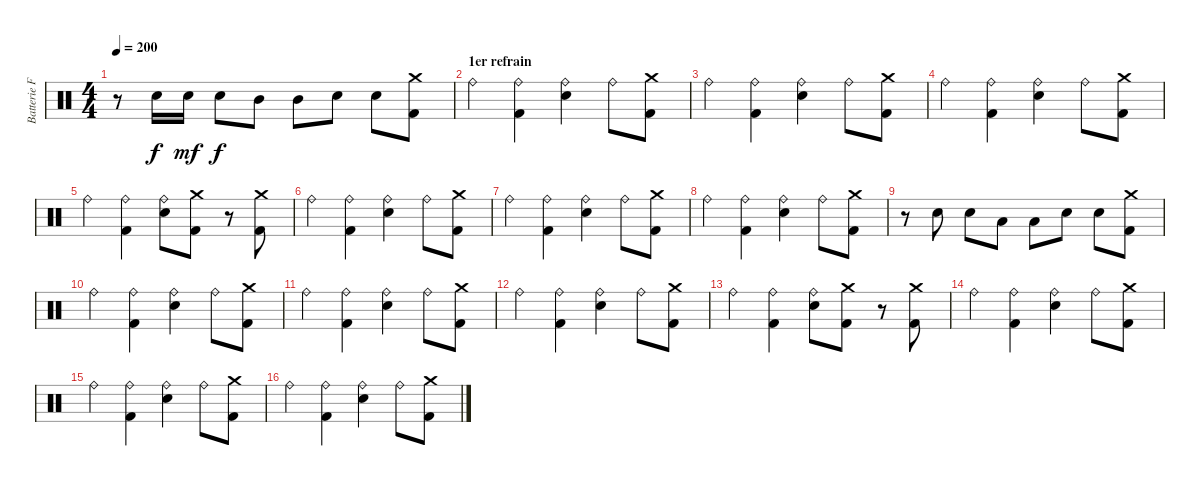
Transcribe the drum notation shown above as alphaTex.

\track ("Batterie Franck" "Batterie F") {instrument percussion}
\staff {score}
\articulation defaults
\ts (4 4)
\tempo 200
\clef neutral
\ks c
r.8{dy f} "Snare (hit) 2".16 "Snare (hit) 2".16{dy mf} "Snare (hit) 2".8{dy f} "Mid Tom (hit)".8 "Mid Tom (hit)".8 "Snare (hit) 2".8 "Snare (hit) 2".8 ("Crash medium (hit)" "Kick (hit) 2").8 |
\section ("" "1er refrain")
"Ride (bell)".4 ("Ride (bell)" "Kick (hit) 2").4 ("Ride (bell)" "Snare (hit) 2").4 "Ride (bell)".8 ("Crash medium (hit)" "Kick (hit) 2").8 |
"Ride (bell)".4 ("Ride (bell)" "Kick (hit) 2").4 ("Ride (bell)" "Snare (hit) 2").4 "Ride (bell)".8 ("Crash medium (hit)" "Kick (hit) 2").8 |
"Ride (bell)".4 ("Ride (bell)" "Kick (hit) 2").4 ("Ride (bell)" "Snare (hit) 2").4 "Ride (bell)".8 ("Crash medium (hit)" "Kick (hit) 2").8 |
"Ride (bell)".4 ("Ride (bell)" "Kick (hit) 2").4 ("Ride (bell)" "Snare (hit) 2").8 ("Crash medium (hit)" "Kick (hit) 2").8 r.8 ("Crash medium (hit)" "Kick (hit) 2").8 |
"Ride (bell)".4 ("Ride (bell)" "Kick (hit) 2").4 ("Ride (bell)" "Snare (hit) 2").4 "Ride (bell)".8 ("Crash medium (hit)" "Kick (hit) 2").8 |
"Ride (bell)".4 ("Ride (bell)" "Kick (hit) 2").4 ("Ride (bell)" "Snare (hit) 2").4 "Ride (bell)".8 ("Crash medium (hit)" "Kick (hit) 2").8 |
"Ride (bell)".4 ("Ride (bell)" "Kick (hit) 2").4 ("Ride (bell)" "Snare (hit) 2").4 "Ride (bell)".8 ("Crash medium (hit)" "Kick (hit) 2").8 |
r.8 "Snare (hit) 2".8 "Snare (hit) 2".8 "Low Floor Tom (hit)".8 "Low Floor Tom (hit)".8 "Snare (hit) 2".8 "Snare (hit) 2".8 ("Crash medium (hit)" "Kick (hit) 2").8 |
"Ride (bell)".4 ("Ride (bell)" "Kick (hit) 2").4 ("Ride (bell)" "Snare (hit) 2").4 "Ride (bell)".8 ("Crash medium (hit)" "Kick (hit) 2").8 |
"Ride (bell)".4 ("Ride (bell)" "Kick (hit) 2").4 ("Ride (bell)" "Snare (hit) 2").4 "Ride (bell)".8 ("Crash medium (hit)" "Kick (hit) 2").8 |
"Ride (bell)".4 ("Ride (bell)" "Kick (hit) 2").4 ("Ride (bell)" "Snare (hit) 2").4 "Ride (bell)".8 ("Crash medium (hit)" "Kick (hit) 2").8 |
"Ride (bell)".4 ("Ride (bell)" "Kick (hit) 2").4 ("Ride (bell)" "Snare (hit) 2").8 ("Crash medium (hit)" "Kick (hit) 2").8 r.8 ("Crash medium (hit)" "Kick (hit) 2").8 |
"Ride (bell)".4 ("Ride (bell)" "Kick (hit) 2").4 ("Ride (bell)" "Snare (hit) 2").4 "Ride (bell)".8 ("Crash medium (hit)" "Kick (hit) 2").8 |
"Ride (bell)".4 ("Ride (bell)" "Kick (hit) 2").4 ("Ride (bell)" "Snare (hit) 2").4 "Ride (bell)".8 ("Crash medium (hit)" "Kick (hit) 2").8 |
"Ride (bell)".4 ("Ride (bell)" "Kick (hit) 2").4 ("Ride (bell)" "Snare (hit) 2").4 "Ride (bell)".8 ("Crash medium (hit)" "Kick (hit) 2").8
